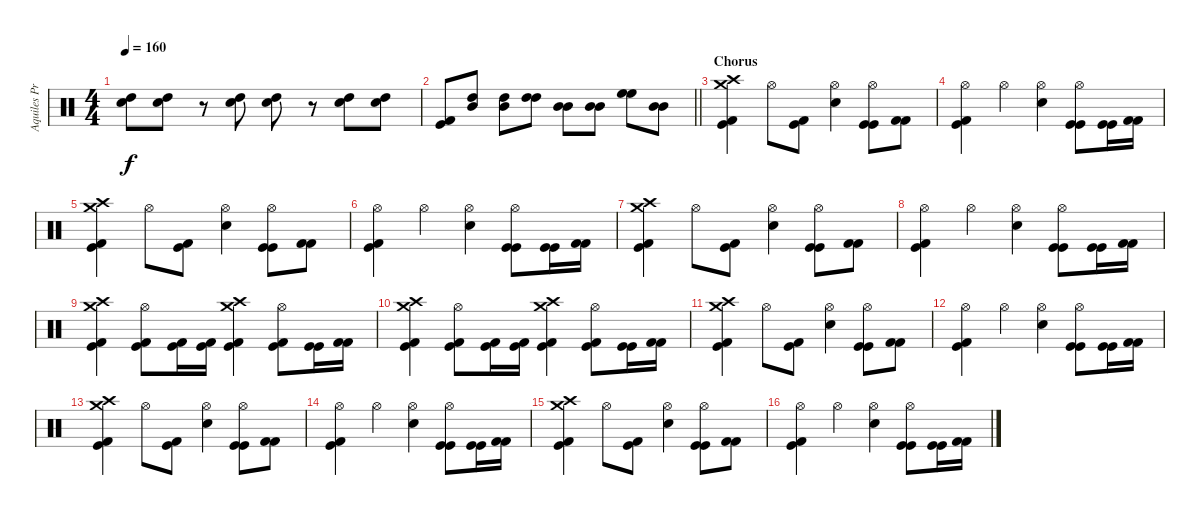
\track ("Aquiles Priester" "Aquiles Pr") {instrument percussion}
\staff {score}
\articulation defaults
\ts (4 4)
\tempo 160
\clef neutral
\ks c
("High Tom (hit)" "Electric Snare (hit)").8{dy f} ("High Tom (hit)" "Electric Snare (hit)").8 r.8 ("High Tom (hit)" "Electric Snare (hit)").8 ("High Tom (hit)" "Electric Snare (hit)").8 r.8 ("High Tom (hit)" "Electric Snare (hit)").8 ("High Tom (hit)" "Electric Snare (hit)").8 |
\barLineRight lightlight
("Kick (hit)" "Kick (hit) 2").8 ("High Tom (hit)" "Mid Tom (hit)").8 ("High Tom (hit)" "Mid Tom (hit)").8 ("High Tom (hit)" "High Tom (hit)").8 ("Mid Tom (hit)" "Mid Tom (hit)").8 ("Mid Tom (hit)" "Mid Tom (hit)").8 ("High Floor Tom (hit)" "High Floor Tom (hit)").8 ("Mid Tom (hit)" "Mid Tom (hit)").8 |
\section ("" "Chorus")
("Crash medium (hit)" "Crash high (hit)" "Kick (hit)" "Kick (hit) 2").4 "Hi-Hat (open)".8 ("Kick (hit) 2" "Kick (hit)").8 ("Hi-Hat (open)" "Electric Snare (hit)").4 ("Hi-Hat (open)" "Kick (hit)" "Kick (hit)").8 ("Kick (hit) 2" "Kick (hit) 2").8 |
("Hi-Hat (open)" "Kick (hit) 2" "Kick (hit)").4 "Hi-Hat (open)".4 ("Hi-Hat (open)" "Electric Snare (hit)").4 ("Hi-Hat (open)" "Kick (hit)" "Kick (hit)").8 ("Kick (hit)" "Kick (hit)").16 ("Kick (hit) 2" "Kick (hit) 2").16 |
("Crash medium (hit)" "Crash high (hit)" "Kick (hit)" "Kick (hit) 2").4 "Hi-Hat (open)".8 ("Kick (hit) 2" "Kick (hit)").8 ("Hi-Hat (open)" "Electric Snare (hit)").4 ("Hi-Hat (open)" "Kick (hit)" "Kick (hit)").8 ("Kick (hit) 2" "Kick (hit) 2").8 |
("Hi-Hat (open)" "Kick (hit) 2" "Kick (hit)").4 "Hi-Hat (open)".4 ("Hi-Hat (open)" "Electric Snare (hit)").4 ("Hi-Hat (open)" "Kick (hit)" "Kick (hit)").8 ("Kick (hit)" "Kick (hit)").16 ("Kick (hit) 2" "Kick (hit) 2").16 |
("Crash medium (hit)" "Crash high (hit)" "Kick (hit)" "Kick (hit) 2").4 "Hi-Hat (open)".8 ("Kick (hit) 2" "Kick (hit)").8 ("Hi-Hat (open)" "Electric Snare (hit)").4 ("Hi-Hat (open)" "Kick (hit)" "Kick (hit)").8 ("Kick (hit) 2" "Kick (hit) 2").8 |
("Hi-Hat (open)" "Kick (hit) 2" "Kick (hit)").4 "Hi-Hat (open)".4 ("Hi-Hat (open)" "Electric Snare (hit)").4 ("Hi-Hat (open)" "Kick (hit)" "Kick (hit)").8 ("Kick (hit)" "Kick (hit)").16 ("Kick (hit) 2" "Kick (hit) 2").16 |
("Crash medium (hit)" "Crash high (hit)" "Kick (hit) 2" "Kick (hit)").4 ("Hi-Hat (open)" "Kick (hit)" "Kick (hit) 2").8 ("Kick (hit) 2" "Kick (hit)").16 ("Kick (hit) 2" "Kick (hit)").16 ("Crash medium (hit)" "Crash high (hit)" "Kick (hit) 2" "Kick (hit)").4 ("Hi-Hat (open)" "Kick (hit) 2" "Kick (hit)").8 ("Kick (hit)" "Kick (hit)").16 ("Kick (hit) 2" "Kick (hit) 2").16 |
("Crash medium (hit)" "Crash high (hit)" "Kick (hit) 2" "Kick (hit)").4 ("Hi-Hat (open)" "Kick (hit)" "Kick (hit) 2").8 ("Kick (hit) 2" "Kick (hit)").16 ("Kick (hit) 2" "Kick (hit)").16 ("Crash medium (hit)" "Crash high (hit)" "Kick (hit) 2" "Kick (hit)").4 ("Hi-Hat (open)" "Kick (hit) 2" "Kick (hit)").8 ("Kick (hit)" "Kick (hit)").16 ("Kick (hit) 2" "Kick (hit) 2").16 |
("Crash medium (hit)" "Crash high (hit)" "Kick (hit)" "Kick (hit) 2").4 "Hi-Hat (open)".8 ("Kick (hit) 2" "Kick (hit)").8 ("Hi-Hat (open)" "Electric Snare (hit)").4 ("Hi-Hat (open)" "Kick (hit)" "Kick (hit)").8 ("Kick (hit) 2" "Kick (hit) 2").8 |
("Hi-Hat (open)" "Kick (hit) 2" "Kick (hit)").4 "Hi-Hat (open)".4 ("Hi-Hat (open)" "Electric Snare (hit)").4 ("Hi-Hat (open)" "Kick (hit)" "Kick (hit)").8 ("Kick (hit)" "Kick (hit)").16 ("Kick (hit) 2" "Kick (hit) 2").16 |
("Crash medium (hit)" "Crash high (hit)" "Kick (hit)" "Kick (hit) 2").4 "Hi-Hat (open)".8 ("Kick (hit) 2" "Kick (hit)").8 ("Hi-Hat (open)" "Electric Snare (hit)").4 ("Hi-Hat (open)" "Kick (hit)" "Kick (hit)").8 ("Kick (hit) 2" "Kick (hit) 2").8 |
("Hi-Hat (open)" "Kick (hit) 2" "Kick (hit)").4 "Hi-Hat (open)".4 ("Hi-Hat (open)" "Electric Snare (hit)").4 ("Hi-Hat (open)" "Kick (hit)" "Kick (hit)").8 ("Kick (hit)" "Kick (hit)").16 ("Kick (hit) 2" "Kick (hit) 2").16 |
("Crash medium (hit)" "Crash high (hit)" "Kick (hit)" "Kick (hit) 2").4 "Hi-Hat (open)".8 ("Kick (hit) 2" "Kick (hit)").8 ("Hi-Hat (open)" "Electric Snare (hit)").4 ("Hi-Hat (open)" "Kick (hit)" "Kick (hit)").8 ("Kick (hit) 2" "Kick (hit) 2").8 |
("Hi-Hat (open)" "Kick (hit) 2" "Kick (hit)").4 "Hi-Hat (open)".4 ("Hi-Hat (open)" "Electric Snare (hit)").4 ("Hi-Hat (open)" "Kick (hit)" "Kick (hit)").8 ("Kick (hit)" "Kick (hit)").16 ("Kick (hit) 2" "Kick (hit) 2").16
